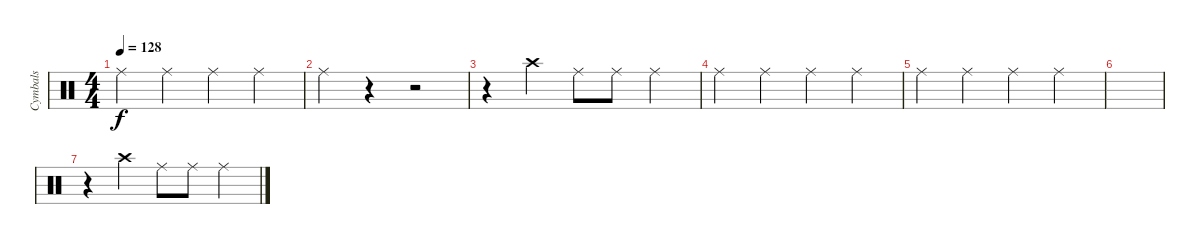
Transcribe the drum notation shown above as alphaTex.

\track ("Cymbals" "Cymbals") {instrument percussion}
\staff {score}
\articulation defaults
\ts (4 4)
\tempo 128
\clef neutral
\ks c "Ride (middle)".4{dy f} "Ride (middle)".4 "Ride (middle)".4 "Ride (middle)".4
|
"Ride (middle)".4 r.4 r.2 |
r.4 "Crash high (hit)".4 "Ride (middle)".8 "Ride (middle)".8 "Ride (middle)".4 |
"Ride (middle)".4 "Ride (middle)".4 "Ride (middle)".4 "Ride (middle)".4 |
"Ride (middle)".4 "Ride (middle)".4 "Ride (middle)".4 "Ride (middle)".4 |
|
r.4 "Crash high (hit)".4 "Ride (middle)".8 "Ride (middle)".8 "Ride (middle)".4
